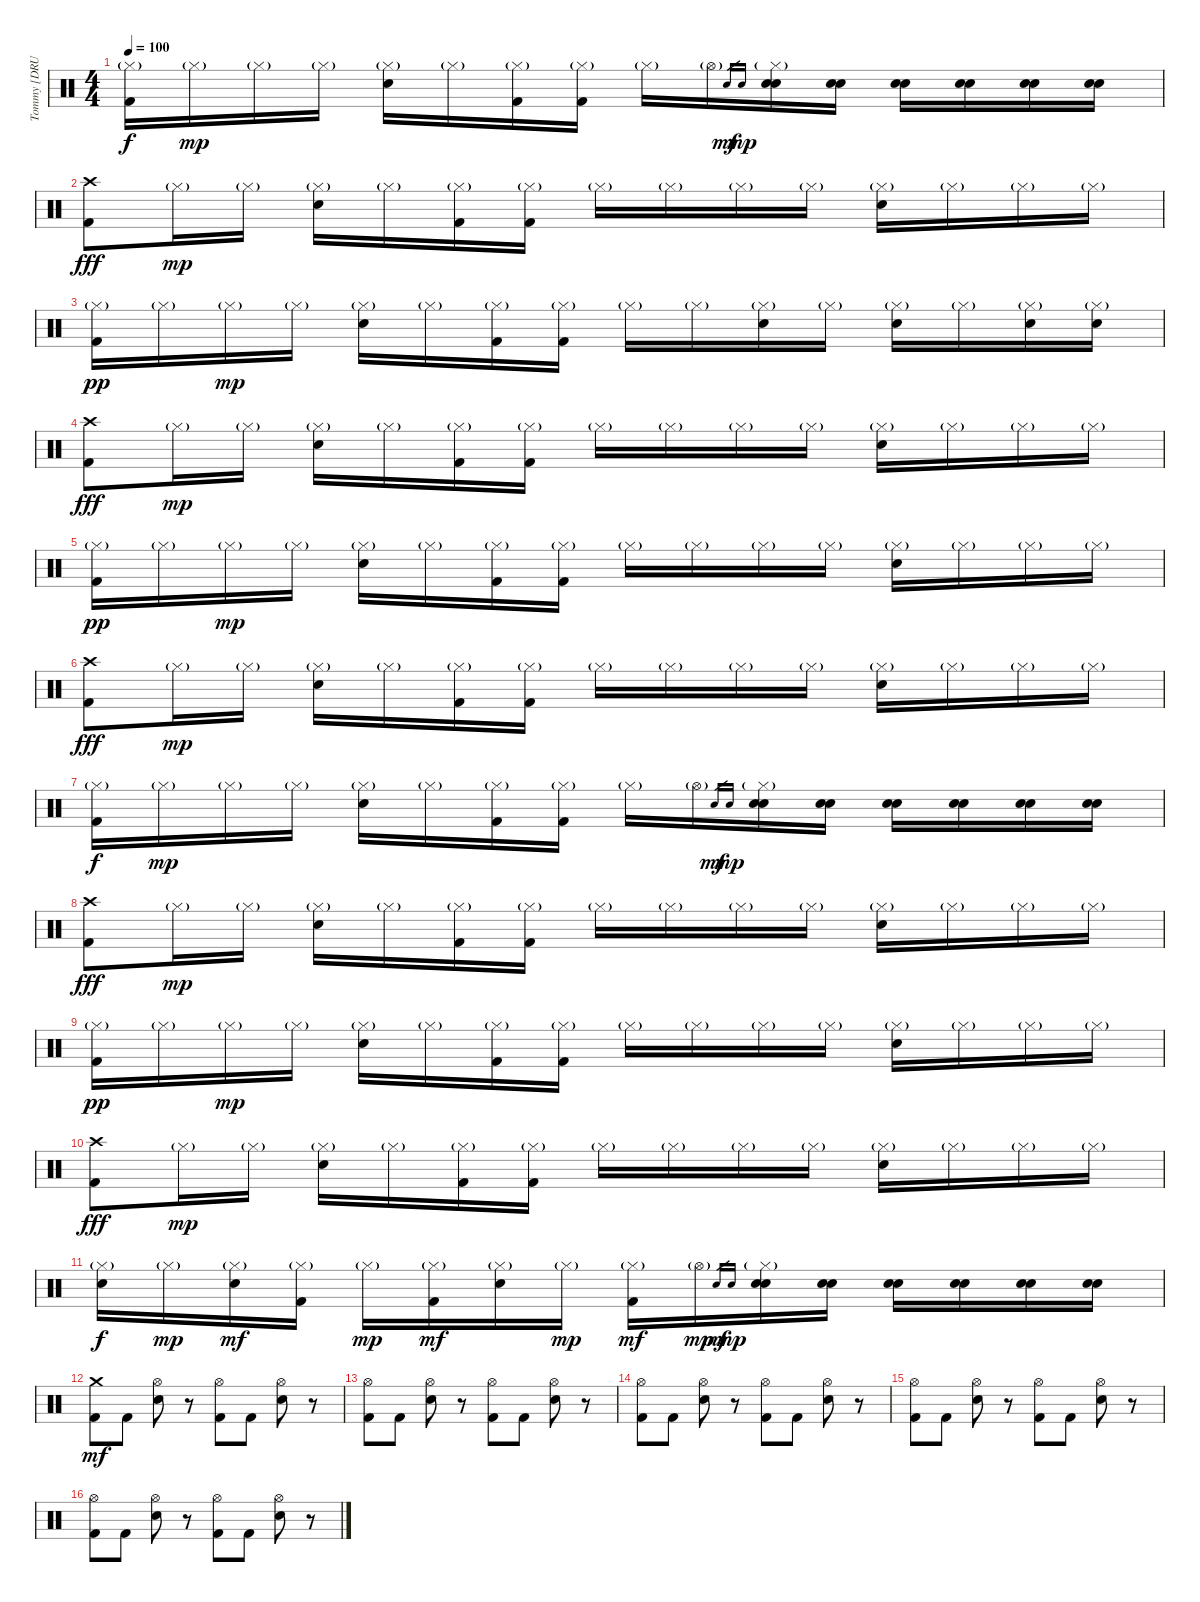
\track ("Tommy [DRUMS]" "Tommy [DRU") {instrument percussion}
\staff {score}
\articulation defaults
\ts (4 4)
\tempo 100
\clef neutral
\ks c
("Hi-Hat (closed)"{g} "Kick (hit) 2").16{dy f} "Hi-Hat (closed)"{g}.16{dy mp} "Hi-Hat (closed)"{g}.16 "Hi-Hat (closed)"{g}.16 ("Hi-Hat (closed)"{g} "Snare (hit) 2").16 "Hi-Hat (closed)"{g}.16 ("Hi-Hat (closed)"{g} "Kick (hit) 2").16 ("Hi-Hat (closed)"{g} "Kick (hit) 2").16 "Hi-Hat (closed)"{g}.16 "Hi-Hat (open)"{g}.16 "Snare (hit) 2".16{gr dy mf} "Electric Snare (hit)".16{gr dy mp} ("Hi-Hat (closed)"{g} "Snare (hit) 2" "Electric Snare (hit)").16 ("Snare (hit) 2" "Electric Snare (hit)").16 ("Snare (hit) 2" "Electric Snare (hit)").16 ("Snare (hit) 2" "Electric Snare (hit)").16 ("Snare (hit) 2" "Electric Snare (hit)").16 ("Snare (hit) 2" "Electric Snare (hit)").16 |
("Crash high (hit)" "Kick (hit) 2").8{dy fff} "Hi-Hat (closed)"{g}.16{dy mp} "Hi-Hat (closed)"{g}.16 ("Hi-Hat (closed)"{g} "Snare (hit) 2").16 "Hi-Hat (closed)"{g}.16 ("Hi-Hat (closed)"{g} "Kick (hit) 2").16 ("Hi-Hat (closed)"{g} "Kick (hit) 2").16 "Hi-Hat (closed)"{g}.16 "Hi-Hat (closed)"{g}.16 "Hi-Hat (closed)"{g}.16 "Hi-Hat (closed)"{g}.16 ("Hi-Hat (closed)"{g} "Snare (hit) 2").16 "Hi-Hat (closed)"{g}.16 "Hi-Hat (closed)"{g}.16 "Hi-Hat (closed)"{g}.16 |
("Hi-Hat (closed)"{g} "Kick (hit) 2").16{dy pp} "Hi-Hat (closed)"{g}.16 "Hi-Hat (closed)"{g}.16{dy mp} "Hi-Hat (closed)"{g}.16 ("Hi-Hat (closed)"{g} "Snare (hit) 2").16 "Hi-Hat (closed)"{g}.16 ("Hi-Hat (closed)"{g} "Kick (hit) 2").16 ("Hi-Hat (closed)"{g} "Kick (hit) 2").16 "Hi-Hat (closed)"{g}.16 "Hi-Hat (closed)"{g}.16 ("Hi-Hat (closed)"{g} "Snare (hit) 2").16 "Hi-Hat (closed)"{g}.16 ("Hi-Hat (closed)"{g} "Snare (hit) 2").16 "Hi-Hat (closed)"{g}.16 ("Hi-Hat (closed)"{g} "Snare (hit) 2").16 ("Hi-Hat (closed)"{g} "Snare (hit) 2").16 |
("Crash high (hit)" "Kick (hit) 2").8{dy fff} "Hi-Hat (closed)"{g}.16{dy mp} "Hi-Hat (closed)"{g}.16 ("Hi-Hat (closed)"{g} "Snare (hit) 2").16 "Hi-Hat (closed)"{g}.16 ("Hi-Hat (closed)"{g} "Kick (hit) 2").16 ("Hi-Hat (closed)"{g} "Kick (hit) 2").16 "Hi-Hat (closed)"{g}.16 "Hi-Hat (closed)"{g}.16 "Hi-Hat (closed)"{g}.16 "Hi-Hat (closed)"{g}.16 ("Hi-Hat (closed)"{g} "Snare (hit) 2").16 "Hi-Hat (closed)"{g}.16 "Hi-Hat (closed)"{g}.16 "Hi-Hat (closed)"{g}.16 |
("Hi-Hat (closed)"{g} "Kick (hit) 2").16{dy pp} "Hi-Hat (closed)"{g}.16 "Hi-Hat (closed)"{g}.16{dy mp} "Hi-Hat (closed)"{g}.16 ("Hi-Hat (closed)"{g} "Snare (hit) 2").16 "Hi-Hat (closed)"{g}.16 ("Hi-Hat (closed)"{g} "Kick (hit) 2").16 ("Hi-Hat (closed)"{g} "Kick (hit) 2").16 "Hi-Hat (closed)"{g}.16 "Hi-Hat (closed)"{g}.16 "Hi-Hat (closed)"{g}.16 "Hi-Hat (closed)"{g}.16 ("Hi-Hat (closed)"{g} "Snare (hit) 2").16 "Hi-Hat (closed)"{g}.16 "Hi-Hat (closed)"{g}.16 "Hi-Hat (closed)"{g}.16 |
("Crash high (hit)" "Kick (hit) 2").8{dy fff} "Hi-Hat (closed)"{g}.16{dy mp} "Hi-Hat (closed)"{g}.16 ("Hi-Hat (closed)"{g} "Snare (hit) 2").16 "Hi-Hat (closed)"{g}.16 ("Hi-Hat (closed)"{g} "Kick (hit) 2").16 ("Hi-Hat (closed)"{g} "Kick (hit) 2").16 "Hi-Hat (closed)"{g}.16 "Hi-Hat (closed)"{g}.16 "Hi-Hat (closed)"{g}.16 "Hi-Hat (closed)"{g}.16 ("Hi-Hat (closed)"{g} "Snare (hit) 2").16 "Hi-Hat (closed)"{g}.16 "Hi-Hat (closed)"{g}.16 "Hi-Hat (closed)"{g}.16 |
("Hi-Hat (closed)"{g} "Kick (hit) 2").16{dy f} "Hi-Hat (closed)"{g}.16{dy mp} "Hi-Hat (closed)"{g}.16 "Hi-Hat (closed)"{g}.16 ("Hi-Hat (closed)"{g} "Snare (hit) 2").16 "Hi-Hat (closed)"{g}.16 ("Hi-Hat (closed)"{g} "Kick (hit) 2").16 ("Hi-Hat (closed)"{g} "Kick (hit) 2").16 "Hi-Hat (closed)"{g}.16 "Hi-Hat (open)"{g}.16 "Snare (hit) 2".16{gr dy mf} "Electric Snare (hit)".16{gr dy mp} ("Hi-Hat (closed)"{g} "Snare (hit) 2" "Electric Snare (hit)").16 ("Snare (hit) 2" "Electric Snare (hit)").16 ("Snare (hit) 2" "Electric Snare (hit)").16 ("Snare (hit) 2" "Electric Snare (hit)").16 ("Snare (hit) 2" "Electric Snare (hit)").16 ("Snare (hit) 2" "Electric Snare (hit)").16 |
("Crash high (hit)" "Kick (hit) 2").8{dy fff} "Hi-Hat (closed)"{g}.16{dy mp} "Hi-Hat (closed)"{g}.16 ("Hi-Hat (closed)"{g} "Snare (hit) 2").16 "Hi-Hat (closed)"{g}.16 ("Hi-Hat (closed)"{g} "Kick (hit) 2").16 ("Hi-Hat (closed)"{g} "Kick (hit) 2").16 "Hi-Hat (closed)"{g}.16 "Hi-Hat (closed)"{g}.16 "Hi-Hat (closed)"{g}.16 "Hi-Hat (closed)"{g}.16 ("Hi-Hat (closed)"{g} "Snare (hit) 2").16 "Hi-Hat (closed)"{g}.16 "Hi-Hat (closed)"{g}.16 "Hi-Hat (closed)"{g}.16 |
("Hi-Hat (closed)"{g} "Kick (hit) 2").16{dy pp} "Hi-Hat (closed)"{g}.16 "Hi-Hat (closed)"{g}.16{dy mp} "Hi-Hat (closed)"{g}.16 ("Hi-Hat (closed)"{g} "Snare (hit) 2").16 "Hi-Hat (closed)"{g}.16 ("Hi-Hat (closed)"{g} "Kick (hit) 2").16 ("Hi-Hat (closed)"{g} "Kick (hit) 2").16 "Hi-Hat (closed)"{g}.16 "Hi-Hat (closed)"{g}.16 "Hi-Hat (closed)"{g}.16 "Hi-Hat (closed)"{g}.16 ("Hi-Hat (closed)"{g} "Snare (hit) 2").16 "Hi-Hat (closed)"{g}.16 "Hi-Hat (closed)"{g}.16 "Hi-Hat (closed)"{g}.16 |
("Crash high (hit)" "Kick (hit) 2").8{dy fff} "Hi-Hat (closed)"{g}.16{dy mp} "Hi-Hat (closed)"{g}.16 ("Hi-Hat (closed)"{g} "Snare (hit) 2").16 "Hi-Hat (closed)"{g}.16 ("Hi-Hat (closed)"{g} "Kick (hit) 2").16 ("Hi-Hat (closed)"{g} "Kick (hit) 2").16 "Hi-Hat (closed)"{g}.16 "Hi-Hat (closed)"{g}.16 "Hi-Hat (closed)"{g}.16 "Hi-Hat (closed)"{g}.16 ("Hi-Hat (closed)"{g} "Snare (hit) 2").16 "Hi-Hat (closed)"{g}.16 "Hi-Hat (closed)"{g}.16 "Hi-Hat (closed)"{g}.16 |
("Hi-Hat (closed)"{g} "Snare (hit) 2").16{dy f} "Hi-Hat (closed)"{g}.16{dy mp} ("Hi-Hat (closed)"{g} "Snare (hit) 2").16{dy mf} ("Hi-Hat (closed)"{g} "Kick (hit) 2").16 "Hi-Hat (closed)"{g}.16{dy mp} ("Hi-Hat (closed)"{g} "Kick (hit) 2").16{dy mf} ("Hi-Hat (closed)"{g} "Snare (hit) 2").16 "Hi-Hat (closed)"{g}.16{dy mp} ("Hi-Hat (closed)"{g} "Kick (hit) 2").16{dy mf} "Hi-Hat (open)"{g}.16{dy mp} "Snare (hit) 2".16{gr dy mf} "Electric Snare (hit)".16{gr dy mp} ("Hi-Hat (closed)"{g} "Snare (hit) 2" "Electric Snare (hit)").16 ("Snare (hit) 2" "Electric Snare (hit)").16 ("Snare (hit) 2" "Electric Snare (hit)").16 ("Snare (hit) 2" "Electric Snare (hit)").16 ("Snare (hit) 2" "Electric Snare (hit)").16 ("Snare (hit) 2" "Electric Snare (hit)").16 |
("Crash medium (hit)" "Kick (hit) 2").8{dy mf} "Kick (hit) 2".8 ("Hi-Hat (open)" "Snare (hit) 2").8 r.8 ("Hi-Hat (open)" "Kick (hit) 2").8 "Kick (hit) 2".8 ("Hi-Hat (open)" "Snare (hit) 2").8 r.8 |
("Hi-Hat (open)" "Kick (hit) 2").8 "Kick (hit) 2".8 ("Hi-Hat (open)" "Snare (hit) 2").8 r.8 ("Hi-Hat (open)" "Kick (hit) 2").8 "Kick (hit) 2".8 ("Hi-Hat (open)" "Snare (hit) 2").8 r.8 |
("Hi-Hat (open)" "Kick (hit) 2").8 "Kick (hit) 2".8 ("Hi-Hat (open)" "Snare (hit) 2").8 r.8 ("Hi-Hat (open)" "Kick (hit) 2").8 "Kick (hit) 2".8 ("Hi-Hat (open)" "Snare (hit) 2").8 r.8 |
("Hi-Hat (open)" "Kick (hit) 2").8 "Kick (hit) 2".8 ("Hi-Hat (open)" "Snare (hit) 2").8 r.8 ("Hi-Hat (open)" "Kick (hit) 2").8 "Kick (hit) 2".8 ("Hi-Hat (open)" "Snare (hit) 2").8 r.8 |
("Hi-Hat (open)" "Kick (hit) 2").8 "Kick (hit) 2".8 ("Hi-Hat (open)" "Snare (hit) 2").8 r.8 ("Hi-Hat (open)" "Kick (hit) 2").8 "Kick (hit) 2".8 ("Hi-Hat (open)" "Snare (hit) 2").8 r.8
